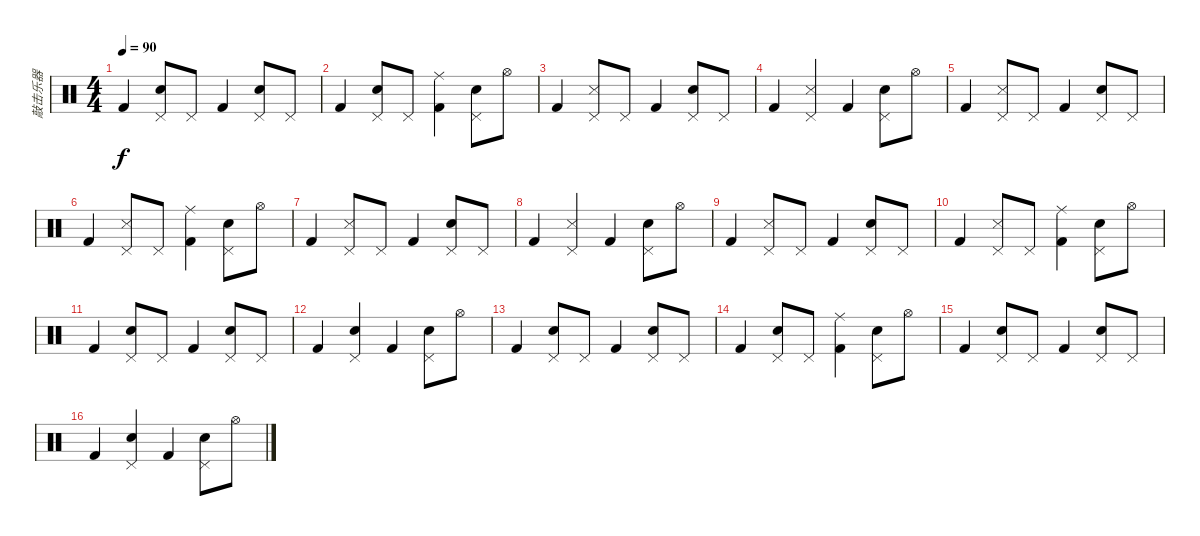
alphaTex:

\track ("敲击乐器" "敲击乐器") {instrument percussion}
\staff {score}
\articulation defaults
\ts (4 4)
\tempo 90
\clef neutral
\ks c "Kick (hit) 2".4{dy f}
("Snare (hit) 2" "Pedal Hi-Hat (hit)").8 "Pedal Hi-Hat (hit)".8 "Kick (hit) 2".4 ("Snare (hit) 2" "Pedal Hi-Hat (hit)").8 "Pedal Hi-Hat (hit)".8 |
"Kick (hit) 2".4 ("Snare (hit) 2" "Pedal Hi-Hat (hit)").8 "Pedal Hi-Hat (hit)".8 ("Ride (middle)" "Kick (hit) 2").4 ("Snare (hit) 2" "Pedal Hi-Hat (hit)").8 "Hi-Hat (open)".8 |
"Kick (hit) 2".4 ("Metronome (hit)" "Pedal Hi-Hat (hit)").8 "Pedal Hi-Hat (hit)".8 "Kick (hit) 2".4 ("Snare (hit) 2" "Pedal Hi-Hat (hit)").8 "Pedal Hi-Hat (hit)".8 |
"Kick (hit) 2".4 ("Metronome (hit)" "Pedal Hi-Hat (hit)").4 "Kick (hit) 2".4 ("Snare (hit) 2" "Pedal Hi-Hat (hit)").8 "Hi-Hat (open)".8 |
"Kick (hit) 2".4 ("Metronome (hit)" "Pedal Hi-Hat (hit)").8 "Pedal Hi-Hat (hit)".8 "Kick (hit) 2".4 ("Snare (hit) 2" "Pedal Hi-Hat (hit)").8 "Pedal Hi-Hat (hit)".8 |
"Kick (hit) 2".4 ("Metronome (hit)" "Pedal Hi-Hat (hit)").8 "Pedal Hi-Hat (hit)".8 ("Ride (middle)" "Kick (hit) 2").4 ("Snare (hit) 2" "Pedal Hi-Hat (hit)").8 "Hi-Hat (open)".8 |
"Kick (hit) 2".4 ("Metronome (hit)" "Pedal Hi-Hat (hit)").8 "Pedal Hi-Hat (hit)".8 "Kick (hit) 2".4 ("Snare (hit) 2" "Pedal Hi-Hat (hit)").8 "Pedal Hi-Hat (hit)".8 |
"Kick (hit) 2".4 ("Metronome (hit)" "Pedal Hi-Hat (hit)").4 "Kick (hit) 2".4 ("Snare (hit) 2" "Pedal Hi-Hat (hit)").8 "Hi-Hat (open)".8 |
"Kick (hit) 2".4 ("Metronome (hit)" "Pedal Hi-Hat (hit)").8 "Pedal Hi-Hat (hit)".8 "Kick (hit) 2".4 ("Snare (hit) 2" "Pedal Hi-Hat (hit)").8 "Pedal Hi-Hat (hit)".8 |
"Kick (hit) 2".4 ("Metronome (hit)" "Pedal Hi-Hat (hit)").8 "Pedal Hi-Hat (hit)".8 ("Ride (middle)" "Kick (hit) 2").4 ("Snare (hit) 2" "Pedal Hi-Hat (hit)").8 "Hi-Hat (open)".8 |
"Kick (hit) 2".4 ("Snare (hit) 2" "Pedal Hi-Hat (hit)").8 "Pedal Hi-Hat (hit)".8 "Kick (hit) 2".4 ("Snare (hit) 2" "Pedal Hi-Hat (hit)").8 "Pedal Hi-Hat (hit)".8 |
"Kick (hit) 2".4 ("Snare (hit) 2" "Pedal Hi-Hat (hit)").4 "Kick (hit) 2".4 ("Snare (hit) 2" "Pedal Hi-Hat (hit)").8 "Hi-Hat (open)".8 |
"Kick (hit) 2".4 ("Snare (hit) 2" "Pedal Hi-Hat (hit)").8 "Pedal Hi-Hat (hit)".8 "Kick (hit) 2".4 ("Snare (hit) 2" "Pedal Hi-Hat (hit)").8 "Pedal Hi-Hat (hit)".8 |
"Kick (hit) 2".4 ("Snare (hit) 2" "Pedal Hi-Hat (hit)").8 "Pedal Hi-Hat (hit)".8 ("Ride (middle)" "Kick (hit) 2").4 ("Snare (hit) 2" "Pedal Hi-Hat (hit)").8 "Hi-Hat (open)".8 |
"Kick (hit) 2".4 ("Snare (hit) 2" "Pedal Hi-Hat (hit)").8 "Pedal Hi-Hat (hit)".8 "Kick (hit) 2".4 ("Snare (hit) 2" "Pedal Hi-Hat (hit)").8 "Pedal Hi-Hat (hit)".8 |
"Kick (hit) 2".4 ("Snare (hit) 2" "Pedal Hi-Hat (hit)").4 "Kick (hit) 2".4 ("Snare (hit) 2" "Pedal Hi-Hat (hit)").8 "Hi-Hat (open)".8
